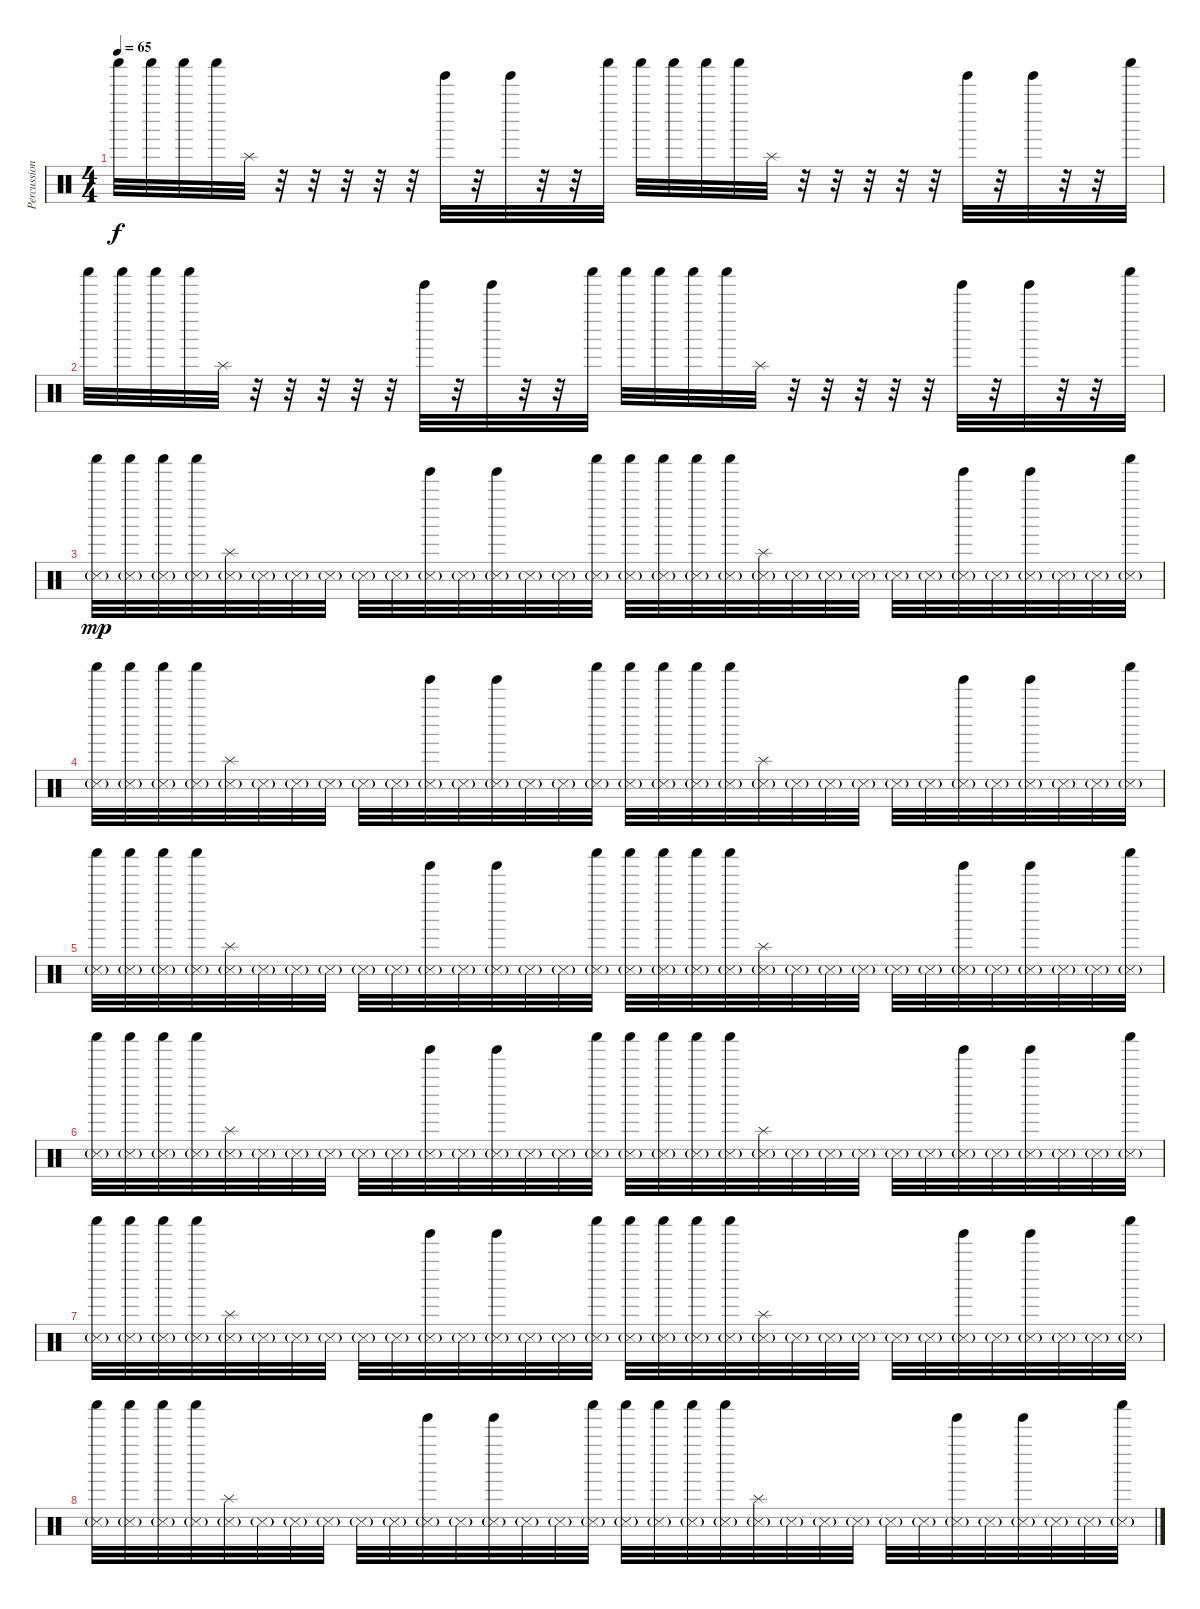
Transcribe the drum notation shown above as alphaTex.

\track ("Percussion 2" "Percussion") {instrument percussion}
\staff {score}
\articulation defaults
\ts (4 4)
\tempo 65
\clef neutral
\ks c "Shaker (hit)".32{dy f} "Shaker (hit)".32 "Shaker (hit)".32 "Shaker (hit)".32 "Splash (hit)".32
r.32 r.32 r.32 r.32 r.32 "Tinkle Bell (hit)".32 r.32 "Tinkle Bell (hit)".32 r.32 r.32 "Shaker (hit)".32 "Shaker (hit)".32 "Shaker (hit)".32 "Shaker (hit)".32 "Shaker (hit)".32 "Splash (hit)".32 r.32 r.32 r.32 r.32 r.32 "Tinkle Bell (hit)".32 r.32 "Tinkle Bell (hit)".32 r.32 r.32 "Shaker (hit)".32 |
"Shaker (hit)".32 "Shaker (hit)".32 "Shaker (hit)".32 "Shaker (hit)".32 "Splash (hit)".32 r.32 r.32 r.32 r.32 r.32 "Tinkle Bell (hit)".32 r.32 "Tinkle Bell (hit)".32 r.32 r.32 "Shaker (hit)".32 "Shaker (hit)".32 "Shaker (hit)".32 "Shaker (hit)".32 "Shaker (hit)".32 "Splash (hit)".32 r.32 r.32 r.32 r.32 r.32 "Tinkle Bell (hit)".32 r.32 "Tinkle Bell (hit)".32 r.32 r.32 "Shaker (hit)".32 |
\section ("" "")
("Snare (side stick) 3"{g} "Shaker (hit)").32{dy mp} ("Snare (side stick) 3"{g} "Shaker (hit)").32 ("Snare (side stick) 3"{g} "Shaker (hit)").32 ("Snare (side stick) 3"{g} "Shaker (hit)").32 ("Snare (side stick) 3"{g} "Splash (hit)").32 "Snare (side stick) 3"{g}.32 "Snare (side stick) 3"{g}.32 "Snare (side stick) 3"{g}.32 "Snare (side stick) 3"{g}.32 "Snare (side stick) 3"{g}.32 ("Tinkle Bell (hit)" "Snare (side stick) 3"{g}).32 "Snare (side stick) 3"{g}.32 ("Tinkle Bell (hit)" "Snare (side stick) 3"{g}).32 "Snare (side stick) 3"{g}.32 "Snare (side stick) 3"{g}.32 ("Snare (side stick) 3"{g} "Shaker (hit)").32 ("Snare (side stick) 3"{g} "Shaker (hit)").32 ("Snare (side stick) 3"{g} "Shaker (hit)").32 ("Snare (side stick) 3"{g} "Shaker (hit)").32 ("Snare (side stick) 3"{g} "Shaker (hit)").32 ("Snare (side stick) 3"{g} "Splash (hit)").32 "Snare (side stick) 3"{g}.32 "Snare (side stick) 3"{g}.32 "Snare (side stick) 3"{g}.32 "Snare (side stick) 3"{g}.32 "Snare (side stick) 3"{g}.32 ("Tinkle Bell (hit)" "Snare (side stick) 3"{g}).32 "Snare (side stick) 3"{g}.32 ("Tinkle Bell (hit)" "Snare (side stick) 3"{g}).32 "Snare (side stick) 3"{g}.32 "Snare (side stick) 3"{g}.32 ("Snare (side stick) 3"{g} "Shaker (hit)").32 |
("Snare (side stick) 3"{g} "Shaker (hit)").32 ("Snare (side stick) 3"{g} "Shaker (hit)").32 ("Snare (side stick) 3"{g} "Shaker (hit)").32 ("Snare (side stick) 3"{g} "Shaker (hit)").32 ("Snare (side stick) 3"{g} "Splash (hit)").32 "Snare (side stick) 3"{g}.32 "Snare (side stick) 3"{g}.32 "Snare (side stick) 3"{g}.32 "Snare (side stick) 3"{g}.32 "Snare (side stick) 3"{g}.32 ("Tinkle Bell (hit)" "Snare (side stick) 3"{g}).32 "Snare (side stick) 3"{g}.32 ("Tinkle Bell (hit)" "Snare (side stick) 3"{g}).32 "Snare (side stick) 3"{g}.32 "Snare (side stick) 3"{g}.32 ("Snare (side stick) 3"{g} "Shaker (hit)").32 ("Snare (side stick) 3"{g} "Shaker (hit)").32 ("Snare (side stick) 3"{g} "Shaker (hit)").32 ("Snare (side stick) 3"{g} "Shaker (hit)").32 ("Snare (side stick) 3"{g} "Shaker (hit)").32 ("Snare (side stick) 3"{g} "Splash (hit)").32 "Snare (side stick) 3"{g}.32 "Snare (side stick) 3"{g}.32 "Snare (side stick) 3"{g}.32 "Snare (side stick) 3"{g}.32 "Snare (side stick) 3"{g}.32 ("Tinkle Bell (hit)" "Snare (side stick) 3"{g}).32 "Snare (side stick) 3"{g}.32 ("Tinkle Bell (hit)" "Snare (side stick) 3"{g}).32 "Snare (side stick) 3"{g}.32 "Snare (side stick) 3"{g}.32 ("Snare (side stick) 3"{g} "Shaker (hit)").32 |
\section ("" "")
("Snare (side stick) 3"{g} "Shaker (hit)").32 ("Snare (side stick) 3"{g} "Shaker (hit)").32 ("Snare (side stick) 3"{g} "Shaker (hit)").32 ("Snare (side stick) 3"{g} "Shaker (hit)").32 ("Snare (side stick) 3"{g} "Splash (hit)").32 "Snare (side stick) 3"{g}.32 "Snare (side stick) 3"{g}.32 "Snare (side stick) 3"{g}.32 "Snare (side stick) 3"{g}.32 "Snare (side stick) 3"{g}.32 ("Tinkle Bell (hit)" "Snare (side stick) 3"{g}).32 "Snare (side stick) 3"{g}.32 ("Tinkle Bell (hit)" "Snare (side stick) 3"{g}).32 "Snare (side stick) 3"{g}.32 "Snare (side stick) 3"{g}.32 ("Snare (side stick) 3"{g} "Shaker (hit)").32 ("Snare (side stick) 3"{g} "Shaker (hit)").32 ("Snare (side stick) 3"{g} "Shaker (hit)").32 ("Snare (side stick) 3"{g} "Shaker (hit)").32 ("Snare (side stick) 3"{g} "Shaker (hit)").32 ("Snare (side stick) 3"{g} "Splash (hit)").32 "Snare (side stick) 3"{g}.32 "Snare (side stick) 3"{g}.32 "Snare (side stick) 3"{g}.32 "Snare (side stick) 3"{g}.32 "Snare (side stick) 3"{g}.32 ("Tinkle Bell (hit)" "Snare (side stick) 3"{g}).32 "Snare (side stick) 3"{g}.32 ("Tinkle Bell (hit)" "Snare (side stick) 3"{g}).32 "Snare (side stick) 3"{g}.32 "Snare (side stick) 3"{g}.32 ("Snare (side stick) 3"{g} "Shaker (hit)").32 |
("Snare (side stick) 3"{g} "Shaker (hit)").32 ("Snare (side stick) 3"{g} "Shaker (hit)").32 ("Snare (side stick) 3"{g} "Shaker (hit)").32 ("Snare (side stick) 3"{g} "Shaker (hit)").32 ("Snare (side stick) 3"{g} "Splash (hit)").32 "Snare (side stick) 3"{g}.32 "Snare (side stick) 3"{g}.32 "Snare (side stick) 3"{g}.32 "Snare (side stick) 3"{g}.32 "Snare (side stick) 3"{g}.32 ("Tinkle Bell (hit)" "Snare (side stick) 3"{g}).32 "Snare (side stick) 3"{g}.32 ("Tinkle Bell (hit)" "Snare (side stick) 3"{g}).32 "Snare (side stick) 3"{g}.32 "Snare (side stick) 3"{g}.32 ("Snare (side stick) 3"{g} "Shaker (hit)").32 ("Snare (side stick) 3"{g} "Shaker (hit)").32 ("Snare (side stick) 3"{g} "Shaker (hit)").32 ("Snare (side stick) 3"{g} "Shaker (hit)").32 ("Snare (side stick) 3"{g} "Shaker (hit)").32 ("Snare (side stick) 3"{g} "Splash (hit)").32 "Snare (side stick) 3"{g}.32 "Snare (side stick) 3"{g}.32 "Snare (side stick) 3"{g}.32 "Snare (side stick) 3"{g}.32 "Snare (side stick) 3"{g}.32 ("Tinkle Bell (hit)" "Snare (side stick) 3"{g}).32 "Snare (side stick) 3"{g}.32 ("Tinkle Bell (hit)" "Snare (side stick) 3"{g}).32 "Snare (side stick) 3"{g}.32 "Snare (side stick) 3"{g}.32 ("Snare (side stick) 3"{g} "Shaker (hit)").32 |
("Snare (side stick) 3"{g} "Shaker (hit)").32 ("Snare (side stick) 3"{g} "Shaker (hit)").32 ("Snare (side stick) 3"{g} "Shaker (hit)").32 ("Snare (side stick) 3"{g} "Shaker (hit)").32 ("Snare (side stick) 3"{g} "Splash (hit)").32 "Snare (side stick) 3"{g}.32 "Snare (side stick) 3"{g}.32 "Snare (side stick) 3"{g}.32 "Snare (side stick) 3"{g}.32 "Snare (side stick) 3"{g}.32 ("Tinkle Bell (hit)" "Snare (side stick) 3"{g}).32 "Snare (side stick) 3"{g}.32 ("Tinkle Bell (hit)" "Snare (side stick) 3"{g}).32 "Snare (side stick) 3"{g}.32 "Snare (side stick) 3"{g}.32 ("Snare (side stick) 3"{g} "Shaker (hit)").32 ("Snare (side stick) 3"{g} "Shaker (hit)").32 ("Snare (side stick) 3"{g} "Shaker (hit)").32 ("Snare (side stick) 3"{g} "Shaker (hit)").32 ("Snare (side stick) 3"{g} "Shaker (hit)").32 ("Snare (side stick) 3"{g} "Splash (hit)").32 "Snare (side stick) 3"{g}.32 "Snare (side stick) 3"{g}.32 "Snare (side stick) 3"{g}.32 "Snare (side stick) 3"{g}.32 "Snare (side stick) 3"{g}.32 ("Tinkle Bell (hit)" "Snare (side stick) 3"{g}).32 "Snare (side stick) 3"{g}.32 ("Tinkle Bell (hit)" "Snare (side stick) 3"{g}).32 "Snare (side stick) 3"{g}.32 "Snare (side stick) 3"{g}.32 ("Snare (side stick) 3"{g} "Shaker (hit)").32 |
("Snare (side stick) 3"{g} "Shaker (hit)").32 ("Snare (side stick) 3"{g} "Shaker (hit)").32 ("Snare (side stick) 3"{g} "Shaker (hit)").32 ("Snare (side stick) 3"{g} "Shaker (hit)").32 ("Snare (side stick) 3"{g} "Splash (hit)").32 "Snare (side stick) 3"{g}.32 "Snare (side stick) 3"{g}.32 "Snare (side stick) 3"{g}.32 "Snare (side stick) 3"{g}.32 "Snare (side stick) 3"{g}.32 ("Tinkle Bell (hit)" "Snare (side stick) 3"{g}).32 "Snare (side stick) 3"{g}.32 ("Tinkle Bell (hit)" "Snare (side stick) 3"{g}).32 "Snare (side stick) 3"{g}.32 "Snare (side stick) 3"{g}.32 ("Snare (side stick) 3"{g} "Shaker (hit)").32 ("Snare (side stick) 3"{g} "Shaker (hit)").32 ("Snare (side stick) 3"{g} "Shaker (hit)").32 ("Snare (side stick) 3"{g} "Shaker (hit)").32 ("Snare (side stick) 3"{g} "Shaker (hit)").32 ("Snare (side stick) 3"{g} "Splash (hit)").32 "Snare (side stick) 3"{g}.32 "Snare (side stick) 3"{g}.32 "Snare (side stick) 3"{g}.32 "Snare (side stick) 3"{g}.32 "Snare (side stick) 3"{g}.32 ("Tinkle Bell (hit)" "Snare (side stick) 3"{g}).32 "Snare (side stick) 3"{g}.32 ("Tinkle Bell (hit)" "Snare (side stick) 3"{g}).32 "Snare (side stick) 3"{g}.32 "Snare (side stick) 3"{g}.32 ("Snare (side stick) 3"{g} "Shaker (hit)").32
